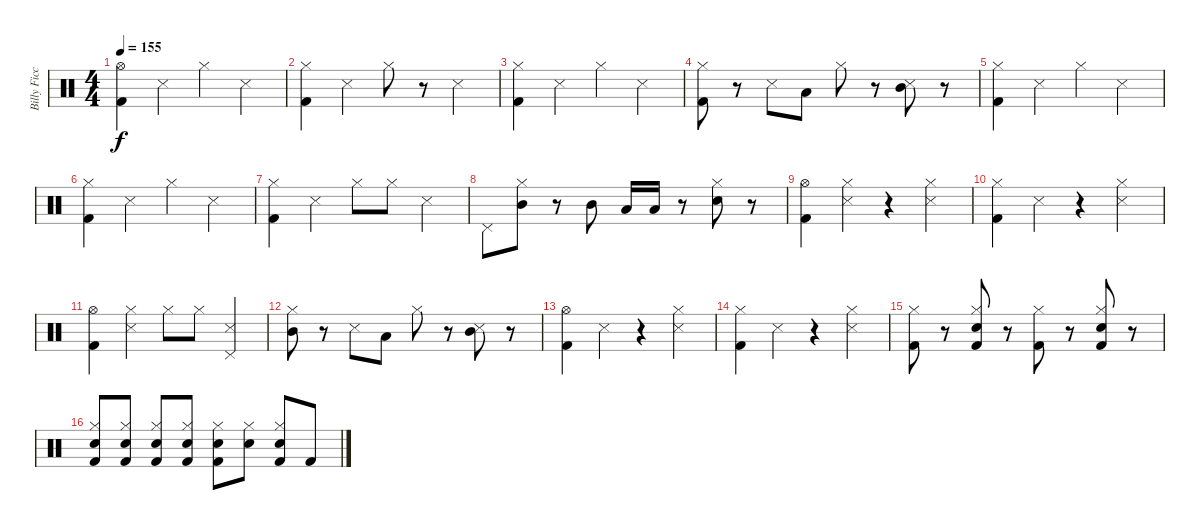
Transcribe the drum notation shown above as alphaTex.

\track ("Billy Ficca" "Billy Ficc") {instrument percussion}
\staff {score}
\articulation defaults
\ts (4 4)
\tempo 155
\clef neutral
\ks c
("Hi-Hat (open)" "Kick (hit) 2").4{dy f} "Snare (side stick) 3".4 "Hi-Hat (closed)".4 "Snare (side stick) 3".4 |
("Hi-Hat (closed)" "Kick (hit) 2").4 "Snare (side stick) 3".4 "Hi-Hat (closed)".8 r.8 "Snare (side stick) 3".4 |
("Hi-Hat (closed)" "Kick (hit) 2").4 "Snare (side stick) 3".4 "Hi-Hat (closed)".4 "Snare (side stick) 3".4 |
("Hi-Hat (closed)" "Kick (hit) 2").8 r.8 "Snare (side stick) 3".8 "Low Tom (hit)".8 "Hi-Hat (closed)".8 r.8 ("Snare (side stick) 3" "Mid Tom (hit)").8 r.8 |
("Hi-Hat (closed)" "Kick (hit) 2").4 "Snare (side stick) 3".4 "Hi-Hat (closed)".4 "Snare (side stick) 3".4 |
("Hi-Hat (closed)" "Kick (hit) 2").4 "Snare (side stick) 3".4 "Hi-Hat (closed)".4 "Snare (side stick) 3".4 |
("Hi-Hat (closed)" "Kick (hit) 2").4 "Snare (side stick) 3".4 "Hi-Hat (closed)".8 "Hi-Hat (closed)".8 "Snare (side stick) 3".4 |
"Pedal Hi-Hat (hit)".8 ("Hi-Hat (closed)" "Mid Tom (hit)").8 r.8 "Mid Tom (hit)".8 "Low Tom (hit)".16 "Low Tom (hit)".16 r.8 ("Hi-Hat (closed)" "Electric Snare (hit)").8 r.8 |
("Hi-Hat (open)" "Kick (hit) 2").4 ("Hi-Hat (closed)" "Snare (side stick) 3").4 r.4 ("Hi-Hat (closed)" "Snare (side stick) 3").4 |
("Hi-Hat (closed)" "Kick (hit) 2").4 "Snare (side stick) 3".4 r.4 ("Hi-Hat (closed)" "Snare (side stick) 3").4 |
("Hi-Hat (open)" "Kick (hit) 2").4 ("Hi-Hat (closed)" "Snare (side stick) 3").4 "Hi-Hat (closed)".8 "Hi-Hat (closed)".8 ("Pedal Hi-Hat (hit)" "Snare (side stick) 3").4 |
("Hi-Hat (closed)" "Mid Tom (hit)").8 r.8 "Snare (side stick) 3".8 "Low Tom (hit)".8 "Hi-Hat (closed)".8 r.8 ("Snare (side stick) 3" "Mid Tom (hit)").8 r.8 |
("Hi-Hat (open)" "Kick (hit) 2").4 "Snare (side stick) 3".4 r.4 ("Hi-Hat (closed)" "Snare (side stick) 3").4 |
("Hi-Hat (closed)" "Kick (hit) 2").4 "Snare (side stick) 3".4 r.4 ("Hi-Hat (closed)" "Snare (side stick) 3").4 |
("Hi-Hat (closed)" "Kick (hit) 2").8 r.8 ("Hi-Hat (closed)" "Electric Snare (hit)" "Kick (hit) 2").8 r.8 ("Hi-Hat (closed)" "Kick (hit) 2").8 r.8 ("Hi-Hat (closed)" "Electric Snare (hit)" "Kick (hit) 2").8 r.8 |
("Hi-Hat (closed)" "Electric Snare (hit)" "Kick (hit) 2").8 ("Hi-Hat (closed)" "Electric Snare (hit)" "Kick (hit) 2").8 ("Hi-Hat (closed)" "Electric Snare (hit)" "Kick (hit) 2").8 ("Hi-Hat (closed)" "Electric Snare (hit)" "Kick (hit) 2").8 ("Hi-Hat (closed)" "Electric Snare (hit)" "Kick (hit) 2").8 ("Hi-Hat (closed)" "Electric Snare (hit)").8 ("Hi-Hat (closed)" "Electric Snare (hit)" "Kick (hit) 2").8 "Kick (hit) 2".8
